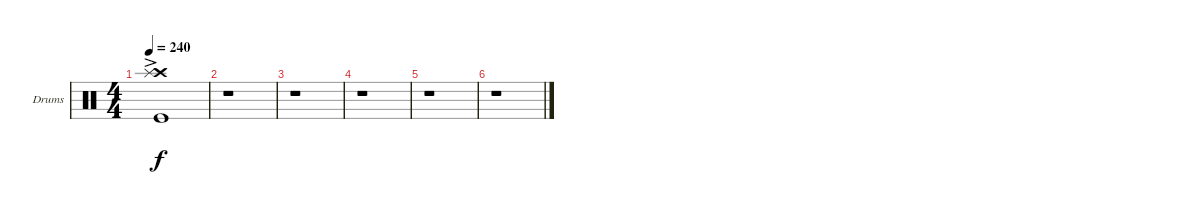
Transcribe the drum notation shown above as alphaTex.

\defaultSystemsLayout 4
\bracketExtendMode groupsimilarinstruments
\firstSystemTrackNameOrientation horizontal
\otherSystemsTrackNameOrientation horizontal
\track ("Drumkit" "Drums") {instrument percussion}
\staff {score}
\articulation defaults
\ts (4 4)
\tempo 240
\clef neutral
\ks c
("Kick (hit)" "Crash high (hit)"{ac} "Splash (hit)").1{dy f} |
r.1 |
r.1 |
r.1 |
r.1 |
r.1
